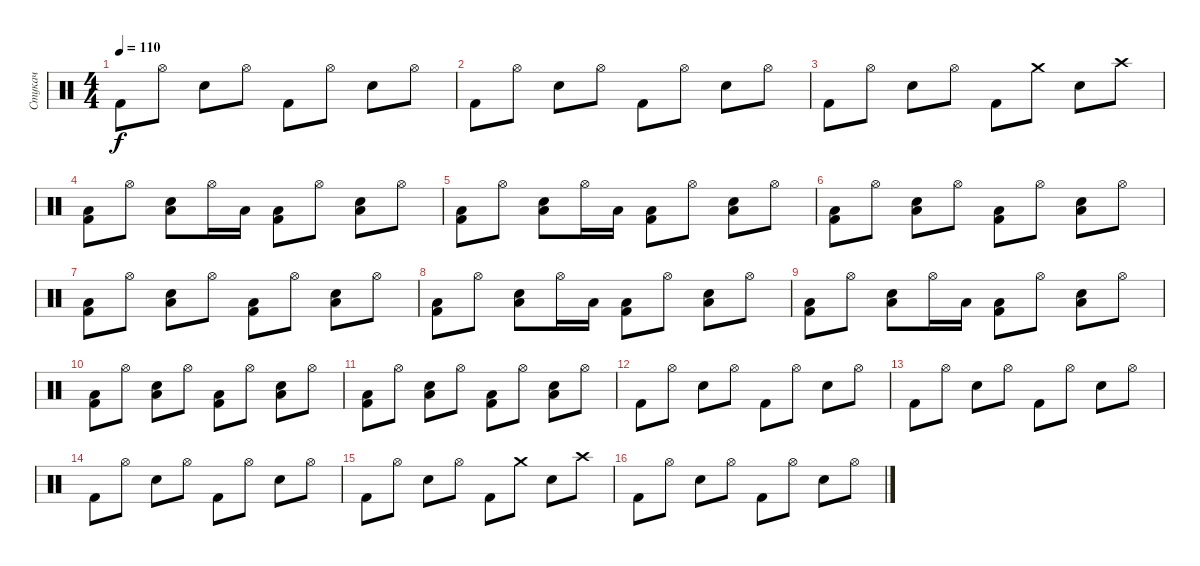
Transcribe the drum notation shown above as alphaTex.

\track ("Стукач" "Стукач") {instrument percussion}
\staff {score}
\articulation defaults
\ts (4 4)
\tempo 110
\clef neutral
\ks c "Kick (hit) 2".8{dy f} "Hi-Hat (open)".8 "Electric Snare (hit)".8 "Hi-Hat (open)".8 "Kick (hit) 2".8 "Hi-Hat (open)".8 "Electric Snare (hit)".8 "Hi-Hat (open)".8
|
"Kick (hit) 2".8 "Hi-Hat (open)".8 "Electric Snare (hit)".8 "Hi-Hat (open)".8 "Kick (hit) 2".8 "Hi-Hat (open)".8 "Electric Snare (hit)".8 "Hi-Hat (open)".8 |
"Kick (hit) 2".8 "Hi-Hat (open)".8 "Electric Snare (hit)".8 "Hi-Hat (open)".8 "Kick (hit) 2".8 "Crash medium (hit)".8 "Electric Snare (hit)".8 "Crash high (hit)".8 |
("Kick (hit) 2" "Low Floor Tom (hit)").8 "Hi-Hat (open)".8 ("Electric Snare (hit)" "Low Floor Tom (hit)").8 "Hi-Hat (open)".16 "Low Floor Tom (hit)".16 ("Kick (hit) 2" "Low Floor Tom (hit)").8 "Hi-Hat (open)".8 ("Electric Snare (hit)" "Low Floor Tom (hit)").8 "Hi-Hat (open)".8 |
("Kick (hit) 2" "Low Floor Tom (hit)").8 "Hi-Hat (open)".8 ("Electric Snare (hit)" "Low Floor Tom (hit)").8 "Hi-Hat (open)".16 "Low Floor Tom (hit)".16 ("Kick (hit) 2" "Low Floor Tom (hit)").8 "Hi-Hat (open)".8 ("Electric Snare (hit)" "Low Floor Tom (hit)").8 "Hi-Hat (open)".8 |
("Kick (hit) 2" "Low Floor Tom (hit)").8 "Hi-Hat (open)".8 ("Electric Snare (hit)" "Low Floor Tom (hit)").8 "Hi-Hat (open)".8 ("Kick (hit) 2" "Low Floor Tom (hit)").8 "Hi-Hat (open)".8 ("Electric Snare (hit)" "Low Floor Tom (hit)").8 "Hi-Hat (open)".8 |
("Kick (hit) 2" "Low Floor Tom (hit)").8 "Hi-Hat (open)".8 ("Electric Snare (hit)" "Low Floor Tom (hit)").8 "Hi-Hat (open)".8 ("Kick (hit) 2" "Low Floor Tom (hit)").8 "Hi-Hat (open)".8 ("Electric Snare (hit)" "Low Floor Tom (hit)").8 "Hi-Hat (open)".8 |
("Kick (hit) 2" "Low Floor Tom (hit)").8 "Hi-Hat (open)".8 ("Electric Snare (hit)" "Low Floor Tom (hit)").8 "Hi-Hat (open)".16 "Low Floor Tom (hit)".16 ("Kick (hit) 2" "Low Floor Tom (hit)").8 "Hi-Hat (open)".8 ("Electric Snare (hit)" "Low Floor Tom (hit)").8 "Hi-Hat (open)".8 |
("Kick (hit) 2" "Low Floor Tom (hit)").8 "Hi-Hat (open)".8 ("Electric Snare (hit)" "Low Floor Tom (hit)").8 "Hi-Hat (open)".16 "Low Floor Tom (hit)".16 ("Kick (hit) 2" "Low Floor Tom (hit)").8 "Hi-Hat (open)".8 ("Electric Snare (hit)" "Low Floor Tom (hit)").8 "Hi-Hat (open)".8 |
("Kick (hit) 2" "Low Floor Tom (hit)").8 "Hi-Hat (open)".8 ("Electric Snare (hit)" "Low Floor Tom (hit)").8 "Hi-Hat (open)".8 ("Kick (hit) 2" "Low Floor Tom (hit)").8 "Hi-Hat (open)".8 ("Electric Snare (hit)" "Low Floor Tom (hit)").8 "Hi-Hat (open)".8 |
("Kick (hit) 2" "Low Floor Tom (hit)").8 "Hi-Hat (open)".8 ("Electric Snare (hit)" "Low Floor Tom (hit)").8 "Hi-Hat (open)".8 ("Kick (hit) 2" "Low Floor Tom (hit)").8 "Hi-Hat (open)".8 ("Electric Snare (hit)" "Low Floor Tom (hit)").8 "Hi-Hat (open)".8 |
"Kick (hit) 2".8 "Hi-Hat (open)".8 "Electric Snare (hit)".8 "Hi-Hat (open)".8 "Kick (hit) 2".8 "Hi-Hat (open)".8 "Electric Snare (hit)".8 "Hi-Hat (open)".8 |
"Kick (hit) 2".8 "Hi-Hat (open)".8 "Electric Snare (hit)".8 "Hi-Hat (open)".8 "Kick (hit) 2".8 "Hi-Hat (open)".8 "Electric Snare (hit)".8 "Hi-Hat (open)".8 |
"Kick (hit) 2".8 "Hi-Hat (open)".8 "Electric Snare (hit)".8 "Hi-Hat (open)".8 "Kick (hit) 2".8 "Hi-Hat (open)".8 "Electric Snare (hit)".8 "Hi-Hat (open)".8 |
"Kick (hit) 2".8 "Hi-Hat (open)".8 "Electric Snare (hit)".8 "Hi-Hat (open)".8 "Kick (hit) 2".8 "Crash medium (hit)".8 "Electric Snare (hit)".8 "Crash high (hit)".8 |
"Kick (hit) 2".8 "Hi-Hat (open)".8 "Electric Snare (hit)".8 "Hi-Hat (open)".8 "Kick (hit) 2".8 "Hi-Hat (open)".8 "Electric Snare (hit)".8 "Hi-Hat (open)".8
